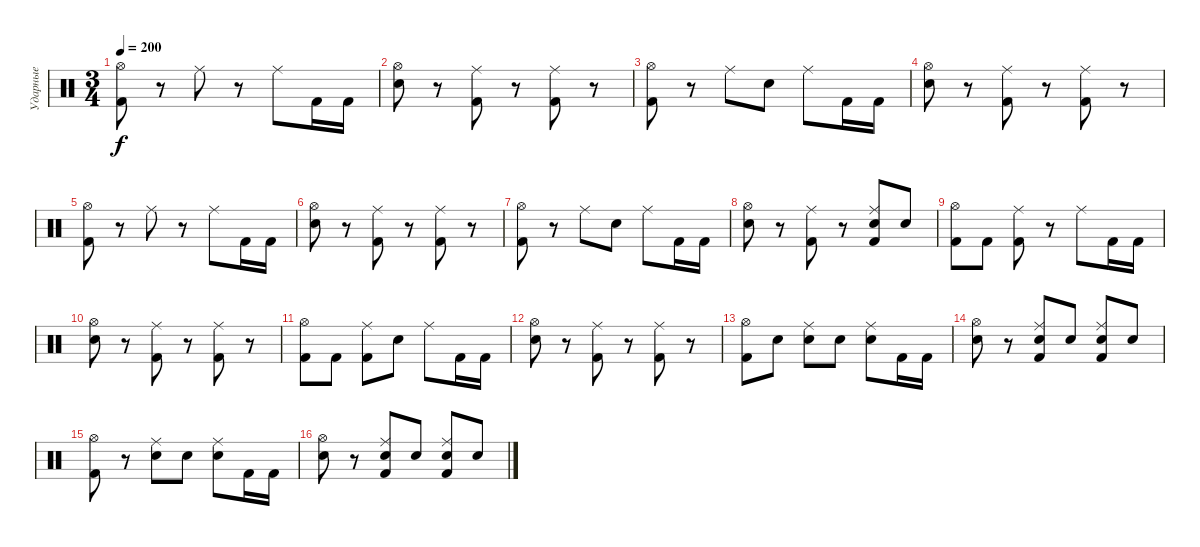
\track ("Ударные" "Ударные") {instrument percussion}
\staff {score}
\articulation defaults
\ts (3 4)
\tempo 200
\clef neutral
\ks c
("Hi-Hat (open)" "Kick (hit) 2").8{dy f} r.8 "Ride (middle)".8 r.8 "Ride (middle)".8 "Kick (hit) 2".16 "Kick (hit) 2".16 |
("Hi-Hat (open)" "Electric Snare (hit)").8 r.8 ("Ride (middle)" "Kick (hit) 2").8 r.8 ("Ride (middle)" "Kick (hit) 2").8 r.8 |
("Hi-Hat (open)" "Kick (hit) 2").8 r.8 "Ride (middle)".8 "Snare (hit) 2".8 "Ride (middle)".8 "Kick (hit) 2".16 "Kick (hit) 2".16 |
("Hi-Hat (open)" "Electric Snare (hit)").8 r.8 ("Ride (middle)" "Kick (hit) 2").8 r.8 ("Ride (middle)" "Kick (hit) 2").8 r.8 |
("Hi-Hat (open)" "Kick (hit) 2").8 r.8 "Ride (middle)".8 r.8 "Ride (middle)".8 "Kick (hit) 2".16 "Kick (hit) 2".16 |
("Hi-Hat (open)" "Electric Snare (hit)").8 r.8 ("Ride (middle)" "Kick (hit) 2").8 r.8 ("Ride (middle)" "Kick (hit) 2").8 r.8 |
("Hi-Hat (open)" "Kick (hit) 2").8 r.8 "Ride (middle)".8 "Snare (hit) 2".8 "Ride (middle)".8 "Kick (hit) 2".16 "Kick (hit) 2".16 |
("Hi-Hat (open)" "Electric Snare (hit)").8 r.8 ("Ride (middle)" "Kick (hit) 2").8 r.8 ("Ride (middle)" "Electric Snare (hit)" "Kick (hit) 2").8 "Electric Snare (hit)".8 |
("Hi-Hat (open)" "Kick (hit) 2").8 "Kick (hit) 2".8 ("Ride (middle)" "Kick (hit) 2").8 r.8 "Ride (middle)".8 "Kick (hit) 2".16 "Kick (hit) 2".16 |
("Hi-Hat (open)" "Electric Snare (hit)").8 r.8 ("Ride (middle)" "Kick (hit) 2").8 r.8 ("Ride (middle)" "Kick (hit) 2").8 r.8 |
("Hi-Hat (open)" "Kick (hit) 2").8 "Kick (hit) 2".8 ("Ride (middle)" "Kick (hit) 2").8 "Snare (hit) 2".8 "Ride (middle)".8 "Kick (hit) 2".16 "Kick (hit) 2".16 |
("Hi-Hat (open)" "Electric Snare (hit)").8 r.8 ("Ride (middle)" "Kick (hit) 2").8 r.8 ("Ride (middle)" "Kick (hit) 2").8 r.8 |
("Hi-Hat (open)" "Kick (hit) 2").8 "Electric Snare (hit)".8 ("Ride (middle)" "Electric Snare (hit)").8 "Electric Snare (hit)".8 ("Ride (middle)" "Electric Snare (hit)").8 "Kick (hit) 2".16 "Kick (hit) 2".16 |
("Hi-Hat (open)" "Electric Snare (hit)").8 r.8 ("Ride (middle)" "Electric Snare (hit)" "Kick (hit) 2").8 "Electric Snare (hit)".8 ("Ride (middle)" "Snare (hit) 2" "Kick (hit) 2").8 "Snare (hit) 2".8 |
("Hi-Hat (open)" "Kick (hit) 2").8 r.8 ("Ride (middle)" "Electric Snare (hit)").8 "Snare (hit) 2".8 ("Ride (middle)" "Snare (hit) 2").8 "Kick (hit) 2".16 "Kick (hit) 2".16 |
("Hi-Hat (open)" "Electric Snare (hit)").8 r.8 ("Ride (middle)" "Electric Snare (hit)" "Kick (hit) 2").8 "Electric Snare (hit)".8 ("Ride (middle)" "Electric Snare (hit)" "Kick (hit) 2").8 "Electric Snare (hit)".8
